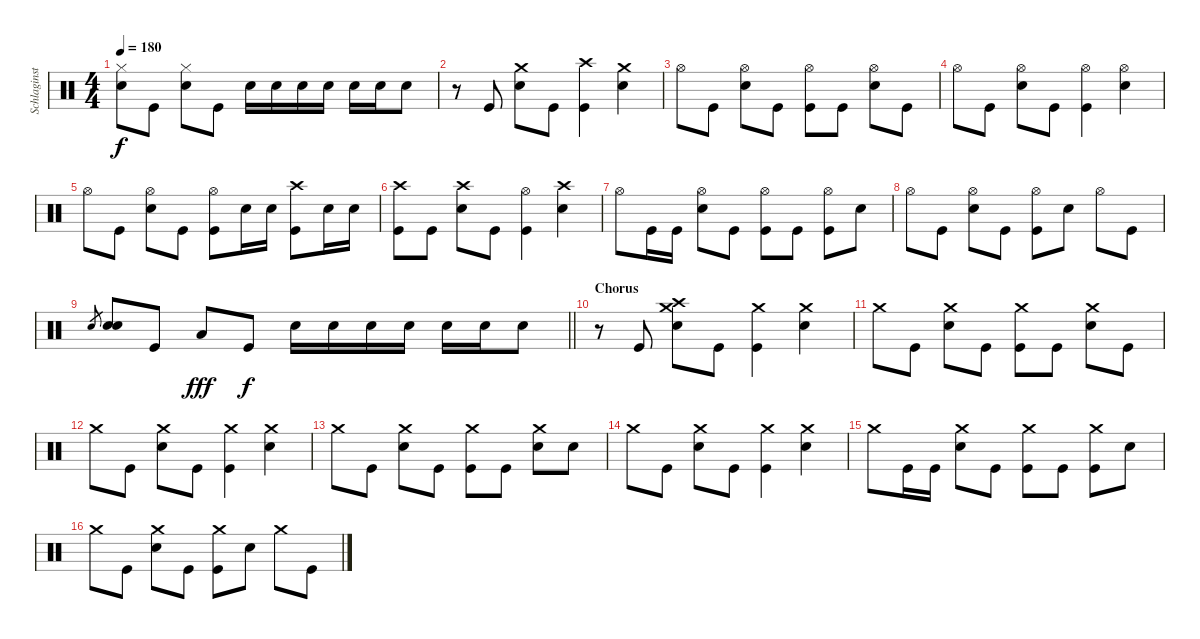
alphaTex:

\track ("Schlaginstrumente - Auswahl" "Schlaginst") {instrument percussion}
\staff {score}
\articulation defaults
\ts (4 4)
\tempo 180
\clef neutral
\ks c
("Snare (hit) 2" "Hi-Hat (closed)").8{dy f} "Kick (hit)".8 ("Snare (hit) 2" "Hi-Hat (closed)").8 "Kick (hit)".8 "Snare (hit) 2".16 "Snare (hit) 2".16 "Snare (hit) 2".16 "Snare (hit) 2".16 "Snare (hit) 2".16 "Snare (hit) 2".16 "Snare (hit) 2".8 |
r.8 "Kick (hit)".8 ("Crash medium (hit)" "Snare (hit) 2").8 "Kick (hit)".8 ("Crash high (hit)" "Kick (hit)").4 ("Crash medium (hit)" "Snare (hit) 2").4 |
"Hi-Hat (open)".8 "Kick (hit)".8 ("Hi-Hat (open)" "Snare (hit) 2").8 "Kick (hit)".8 ("Hi-Hat (open)" "Kick (hit)").8 "Kick (hit)".8 ("Snare (hit) 2" "Hi-Hat (open)").8 "Kick (hit)".8 |
"Hi-Hat (open)".8 "Kick (hit)".8 ("Hi-Hat (open)" "Snare (hit) 2").8 "Kick (hit)".8 ("Hi-Hat (open)" "Kick (hit)").4 ("Hi-Hat (open)" "Snare (hit) 2").4 |
"Hi-Hat (open)".8 "Kick (hit)".8 ("Hi-Hat (open)" "Snare (hit) 2").8 "Kick (hit)".8 ("Hi-Hat (open)" "Kick (hit)").8 "Snare (hit) 2".16 "Snare (hit) 2".16 ("Kick (hit)" "Crash high (hit)").8 "Snare (hit) 2".16 "Snare (hit) 2".16 |
("Kick (hit)" "Crash high (hit)").8 "Kick (hit)".8 ("Snare (hit) 2" "Crash high (hit)").8 "Kick (hit)".8 ("Kick (hit)" "Hi-Hat (open)").4 ("Snare (hit) 2" "Crash high (hit)").4 |
"Hi-Hat (open)".8 "Kick (hit)".16 "Kick (hit)".16 ("Snare (hit) 2" "Hi-Hat (open)").8 "Kick (hit)".8 ("Kick (hit)" "Hi-Hat (open)").8 "Kick (hit)".8 ("Kick (hit)" "Hi-Hat (open)").8 "Snare (hit) 2".8 |
"Hi-Hat (open)".8 "Kick (hit)".8 ("Hi-Hat (open)" "Snare (hit) 2").8 "Kick (hit)".8 ("Hi-Hat (open)" "Kick (hit)").8 "Snare (hit) 2".8 "Hi-Hat (open)".8 "Kick (hit)".8 |
\barLineRight lightlight "Electric Snare (hit)".8{gr}
("Snare (hit) 2" "Electric Snare (hit)").8 "Kick (hit)".8 "Low Floor Tom (hit)".8{dy fff} "Kick (hit)".8{dy f} "Snare (hit) 2".16 "Snare (hit) 2".16 "Snare (hit) 2".16 "Snare (hit) 2".16 "Snare (hit) 2".16 "Snare (hit) 2".16 "Snare (hit) 2".8 |
\section ("" "Chorus")
r.8 "Kick (hit)".8 ("Crash medium (hit)" "Crash high (hit)" "Snare (hit) 2").8 "Kick (hit)".8 ("Crash medium (hit)" "Kick (hit)").4 ("Crash medium (hit)" "Snare (hit) 2").4 |
"Crash medium (hit)".8 "Kick (hit)".8 ("Crash medium (hit)" "Snare (hit) 2").8 "Kick (hit)".8 ("Crash medium (hit)" "Kick (hit)").8 "Kick (hit)".8 ("Snare (hit) 2" "Crash medium (hit)").8 "Kick (hit)".8 |
"Crash medium (hit)".8 "Kick (hit)".8 ("Crash medium (hit)" "Snare (hit) 2").8 "Kick (hit)".8 ("Crash medium (hit)" "Kick (hit)").4 ("Crash medium (hit)" "Snare (hit) 2").4 |
"Crash medium (hit)".8 "Kick (hit)".8 ("Crash medium (hit)" "Snare (hit) 2").8 "Kick (hit)".8 ("Crash medium (hit)" "Kick (hit)").8 "Kick (hit)".8 ("Snare (hit) 2" "Crash medium (hit)").8 "Snare (hit) 2".8 |
"Crash medium (hit)".8 "Kick (hit)".8 ("Crash medium (hit)" "Snare (hit) 2").8 "Kick (hit)".8 ("Crash medium (hit)" "Kick (hit)").4 ("Crash medium (hit)" "Snare (hit) 2").4 |
"Crash medium (hit)".8 "Kick (hit)".16 "Kick (hit)".16 ("Crash medium (hit)" "Snare (hit) 2").8 "Kick (hit)".8 ("Crash medium (hit)" "Kick (hit)").8 "Kick (hit)".8 ("Kick (hit)" "Crash medium (hit)").8 "Snare (hit) 2".8 |
"Crash medium (hit)".8 "Kick (hit)".8 ("Crash medium (hit)" "Snare (hit) 2").8 "Kick (hit)".8 ("Crash medium (hit)" "Kick (hit)").8 "Snare (hit) 2".8 "Crash medium (hit)".8 "Kick (hit)".8
